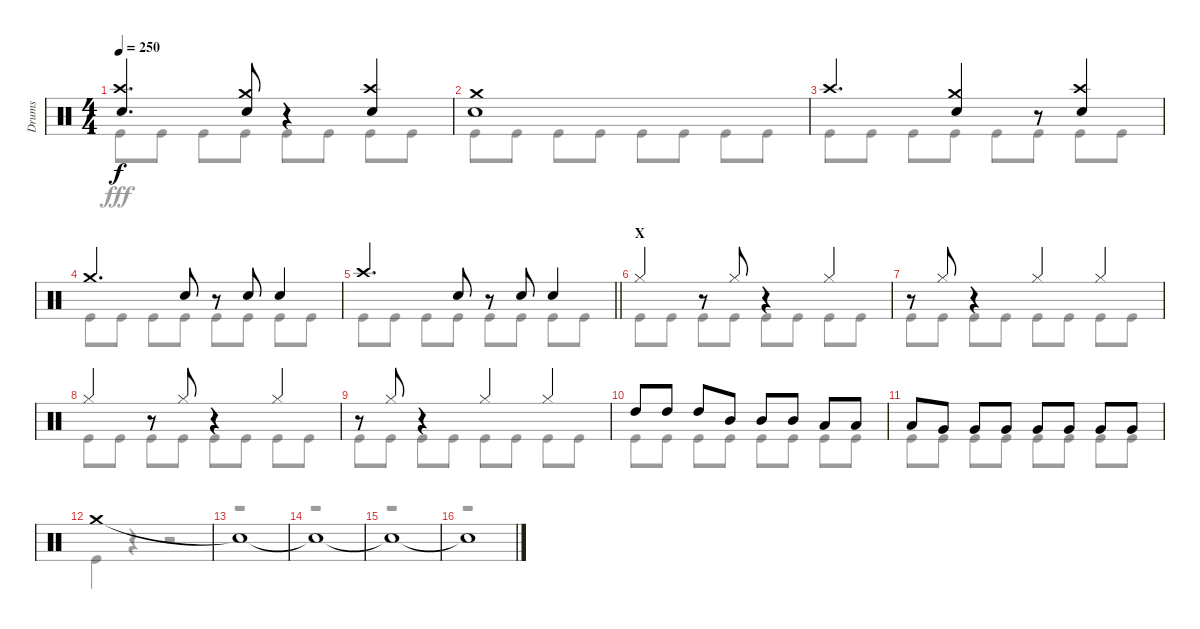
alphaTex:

\track ("Drums" "Drums") {instrument percussion}
\staff {score}
\articulation defaults
\voice
\ts (4 4)
\tempo 250
\clef neutral
\ks c
("Crash high (hit)" "Snare (hit) 2").4{d dy f} ("Crash medium (hit)" "Snare (hit) 2").8 r.4 ("Crash high (hit)" "Snare (hit) 2").4 |
("Crash medium (hit)" "Snare (hit) 2").1 |
"Crash high (hit)".4{d} ("Crash medium (hit)" "Snare (hit) 2").4 r.8 ("Crash high (hit)" "Snare (hit) 2").4 |
"Crash medium (hit)".4{d} "Snare (hit) 2".8 r.8 "Snare (hit) 2".8 "Snare (hit) 2".4 |
\barLineRight lightlight "Crash high (hit)".4{d} "Snare (hit) 2".8
r.8 "Snare (hit) 2".8 "Snare (hit) 2".4 |
\section ("" "X")
"Hi-Hat (closed)".4 r.8 "Hi-Hat (closed)".8 r.4 "Hi-Hat (closed)".4 |
r.8 "Hi-Hat (closed)".8 r.4 "Hi-Hat (closed)".4 "Hi-Hat (closed)".4 |
"Hi-Hat (closed)".4 r.8 "Hi-Hat (closed)".8 r.4 "Hi-Hat (closed)".4 |
r.8 "Hi-Hat (closed)".8 r.4 "Hi-Hat (closed)".4 "Hi-Hat (closed)".4 |
"High Tom (hit)".8 "High Tom (hit)".8 "High Tom (hit)".8 "Mid Tom (hit)".8 "Mid Tom (hit)".8 "Mid Tom (hit)".8 "Low Tom (hit)".8 "Low Tom (hit)".8 |
"Low Tom (hit)".8 "Very Low Tom (hit)".8 "Very Low Tom (hit)".8 "Very Low Tom (hit)".8 "Very Low Tom (hit)".8 "Very Low Tom (hit)".8 "Very Low Tom (hit)".8 "Very Low Tom (hit)".8 |
"Crash medium (hit)".1 |
"Snare (hit)"{t}.1 |
"Snare (hit)"{t}.1 |
"Snare (hit)"{t}.1 |
"Snare (hit)"{t}.1
\voice
\clef neutral
\ottava regular
\simile none
\ks c "Kick (hit)".8{dy fff} "Kick (hit)".8 "Kick (hit)".8 "Kick (hit)".8 "Kick (hit)".8 "Kick (hit)".8 "Kick (hit)".8 "Kick (hit)".8
|
"Kick (hit)".8 "Kick (hit)".8 "Kick (hit)".8 "Kick (hit)".8 "Kick (hit)".8 "Kick (hit)".8 "Kick (hit)".8 "Kick (hit)".8 |
"Kick (hit)".8 "Kick (hit)".8 "Kick (hit)".8 "Kick (hit)".8 "Kick (hit)".8 "Kick (hit)".8 "Kick (hit)".8 "Kick (hit)".8 |
"Kick (hit)".8 "Kick (hit)".8 "Kick (hit)".8 "Kick (hit)".8 "Kick (hit)".8 "Kick (hit)".8 "Kick (hit)".8 "Kick (hit)".8 |
\barLineRight lightlight "Kick (hit)".8 "Kick (hit)".8 "Kick (hit)".8 "Kick (hit)".8 "Kick (hit)".8 "Kick (hit)".8 "Kick (hit)".8 "Kick (hit)".8
|
"Kick (hit)".8 "Kick (hit)".8 "Kick (hit)".8 "Kick (hit)".8 "Kick (hit)".8 "Kick (hit)".8 "Kick (hit)".8 "Kick (hit)".8 |
"Kick (hit)".8 "Kick (hit)".8 "Kick (hit)".8 "Kick (hit)".8 "Kick (hit)".8 "Kick (hit)".8 "Kick (hit)".8 "Kick (hit)".8 |
"Kick (hit)".8 "Kick (hit)".8 "Kick (hit)".8 "Kick (hit)".8 "Kick (hit)".8 "Kick (hit)".8 "Kick (hit)".8 "Kick (hit)".8 |
"Kick (hit)".8 "Kick (hit)".8 "Kick (hit)".8 "Kick (hit)".8 "Kick (hit)".8 "Kick (hit)".8 "Kick (hit)".8 "Kick (hit)".8 |
"Kick (hit)".8 "Kick (hit)".8 "Kick (hit)".8 "Kick (hit)".8 "Kick (hit)".8 "Kick (hit)".8 "Kick (hit)".8 "Kick (hit)".8 |
"Kick (hit)".8 "Kick (hit)".8 "Kick (hit)".8 "Kick (hit)".8 "Kick (hit)".8 "Kick (hit)".8 "Kick (hit)".8 "Kick (hit)".8 |
"Kick (hit)".4 r.4 r.2 |
r.1 |
r.1 |
r.1 |
r.1
